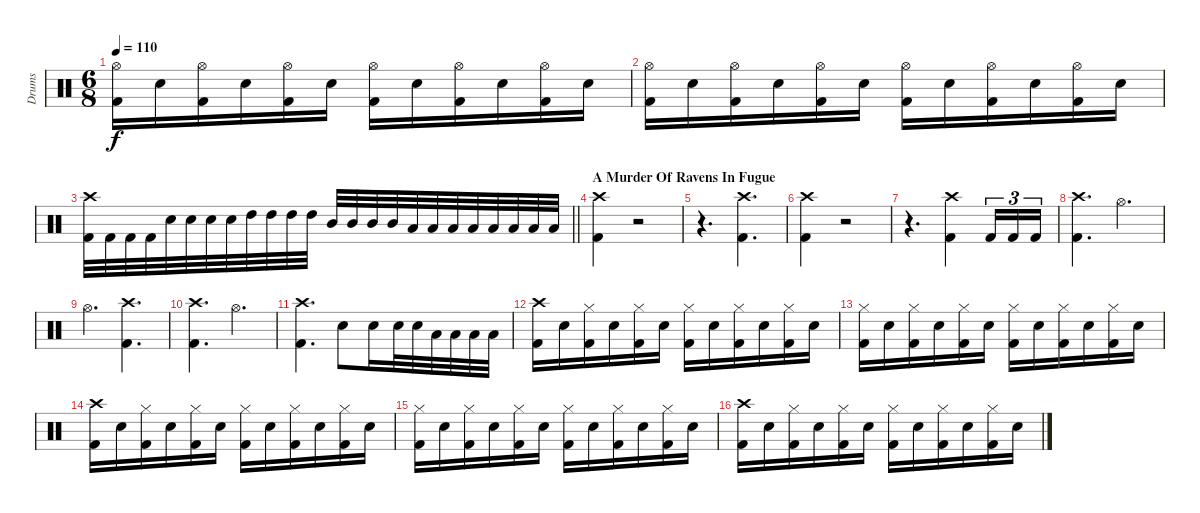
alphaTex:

\track ("Drums" "Drums") {instrument percussion}
\staff {score}
\articulation defaults
\ts (6 8)
\tempo 110
\clef neutral
\ks c
("Hi-Hat (open)" "Kick (hit) 2").16{dy f} "Snare (hit) 2".16 ("Hi-Hat (open)" "Kick (hit) 2").16 "Snare (hit) 2".16 ("Hi-Hat (open)" "Kick (hit) 2").16 "Snare (hit) 2".16 ("Hi-Hat (open)" "Kick (hit) 2").16 "Snare (hit) 2".16 ("Hi-Hat (open)" "Kick (hit) 2").16 "Snare (hit) 2".16 ("Hi-Hat (open)" "Kick (hit) 2").16 "Snare (hit) 2".16 |
("Hi-Hat (open)" "Kick (hit) 2").16 "Snare (hit) 2".16 ("Hi-Hat (open)" "Kick (hit) 2").16 "Snare (hit) 2".16 ("Hi-Hat (open)" "Kick (hit) 2").16 "Snare (hit) 2".16 ("Hi-Hat (open)" "Kick (hit) 2").16 "Snare (hit) 2".16 ("Hi-Hat (open)" "Kick (hit) 2").16 "Snare (hit) 2".16 ("Hi-Hat (open)" "Kick (hit) 2").16 "Snare (hit) 2".16 |
\barLineRight lightlight
("Crash high (hit)" "Kick (hit) 2").32 "Kick (hit) 2".32 "Kick (hit) 2".32 "Kick (hit) 2".32 "Snare (hit) 2".32 "Snare (hit) 2".32 "Snare (hit) 2".32 "Snare (hit) 2".32 "High Tom (hit)".32 "High Tom (hit)".32 "High Tom (hit)".32 "High Tom (hit)".32 "Mid Tom (hit)".32 "Mid Tom (hit)".32 "Mid Tom (hit)".32 "Mid Tom (hit)".32 "Low Tom (hit)".32 "Low Tom (hit)".32 "Low Tom (hit)".32 "Low Tom (hit)".32 "Low Floor Tom (hit)".32 "Low Floor Tom (hit)".32 "Low Floor Tom (hit)".32 "Low Floor Tom (hit)".32 |
\section ("" "A Murder Of Ravens In Fugue")
("Crash high (hit)" "Kick (hit) 2").4 r.2 |
r.4{d} ("Crash high (hit)" "Kick (hit) 2").4{d} |
("Crash high (hit)" "Kick (hit) 2").4 r.2 |
r.4{d} ("Crash high (hit)" "Kick (hit) 2").4 "Kick (hit) 2".16{tu (3 2)} "Kick (hit) 2".16{tu (3 2)} "Kick (hit) 2".16{tu (3 2)} |
("Crash high (hit)" "Kick (hit) 2").4{d} "Hi-Hat (open)".4{d} |
"Hi-Hat (open)".4{d} ("Crash high (hit)" "Kick (hit) 2").4{d} |
("Crash high (hit)" "Kick (hit) 2").4{d} "Hi-Hat (open)".4{d} |
("Crash high (hit)" "Kick (hit) 2").4{d} "Electric Snare (hit)".8 "Electric Snare (hit)".16 "Electric Snare (hit)".32 "Electric Snare (hit)".32 "Low Tom (hit)".32 "Low Tom (hit)".32 "Low Floor Tom (hit)".32 "Low Floor Tom (hit)".32 |
("Crash high (hit)" "Kick (hit) 2").16 "Electric Snare (hit)".16 ("Hi-Hat (closed)" "Kick (hit) 2").16 "Electric Snare (hit)".16 ("Hi-Hat (closed)" "Kick (hit) 2").16 "Electric Snare (hit)".16 ("Hi-Hat (closed)" "Kick (hit) 2").16 "Electric Snare (hit)".16 ("Hi-Hat (closed)" "Kick (hit) 2").16 "Electric Snare (hit)".16 ("Hi-Hat (closed)" "Kick (hit) 2").16 "Electric Snare (hit)".16 |
("Hi-Hat (closed)" "Kick (hit) 2").16 "Electric Snare (hit)".16 ("Hi-Hat (closed)" "Kick (hit) 2").16 "Electric Snare (hit)".16 ("Hi-Hat (closed)" "Kick (hit) 2").16 "Electric Snare (hit)".16 ("Hi-Hat (closed)" "Kick (hit) 2").16 "Electric Snare (hit)".16 ("Hi-Hat (closed)" "Kick (hit) 2").16 "Electric Snare (hit)".16 ("Hi-Hat (closed)" "Kick (hit) 2").16 "Electric Snare (hit)".16 |
("Crash high (hit)" "Kick (hit) 2").16 "Electric Snare (hit)".16 ("Hi-Hat (closed)" "Kick (hit) 2").16 "Electric Snare (hit)".16 ("Hi-Hat (closed)" "Kick (hit) 2").16 "Electric Snare (hit)".16 ("Hi-Hat (closed)" "Kick (hit) 2").16 "Electric Snare (hit)".16 ("Hi-Hat (closed)" "Kick (hit) 2").16 "Electric Snare (hit)".16 ("Hi-Hat (closed)" "Kick (hit) 2").16 "Electric Snare (hit)".16 |
("Hi-Hat (closed)" "Kick (hit) 2").16 "Electric Snare (hit)".16 ("Hi-Hat (closed)" "Kick (hit) 2").16 "Electric Snare (hit)".16 ("Hi-Hat (closed)" "Kick (hit) 2").16 "Electric Snare (hit)".16 ("Hi-Hat (closed)" "Kick (hit) 2").16 "Electric Snare (hit)".16 ("Hi-Hat (closed)" "Kick (hit) 2").16 "Electric Snare (hit)".16 ("Hi-Hat (closed)" "Kick (hit) 2").16 "Electric Snare (hit)".16 |
("Crash high (hit)" "Kick (hit) 2").16 "Electric Snare (hit)".16 ("Hi-Hat (closed)" "Kick (hit) 2").16 "Electric Snare (hit)".16 ("Hi-Hat (closed)" "Kick (hit) 2").16 "Electric Snare (hit)".16 ("Hi-Hat (closed)" "Kick (hit) 2").16 "Electric Snare (hit)".16 ("Hi-Hat (closed)" "Kick (hit) 2").16 "Electric Snare (hit)".16 ("Hi-Hat (closed)" "Kick (hit) 2").16 "Electric Snare (hit)".16
